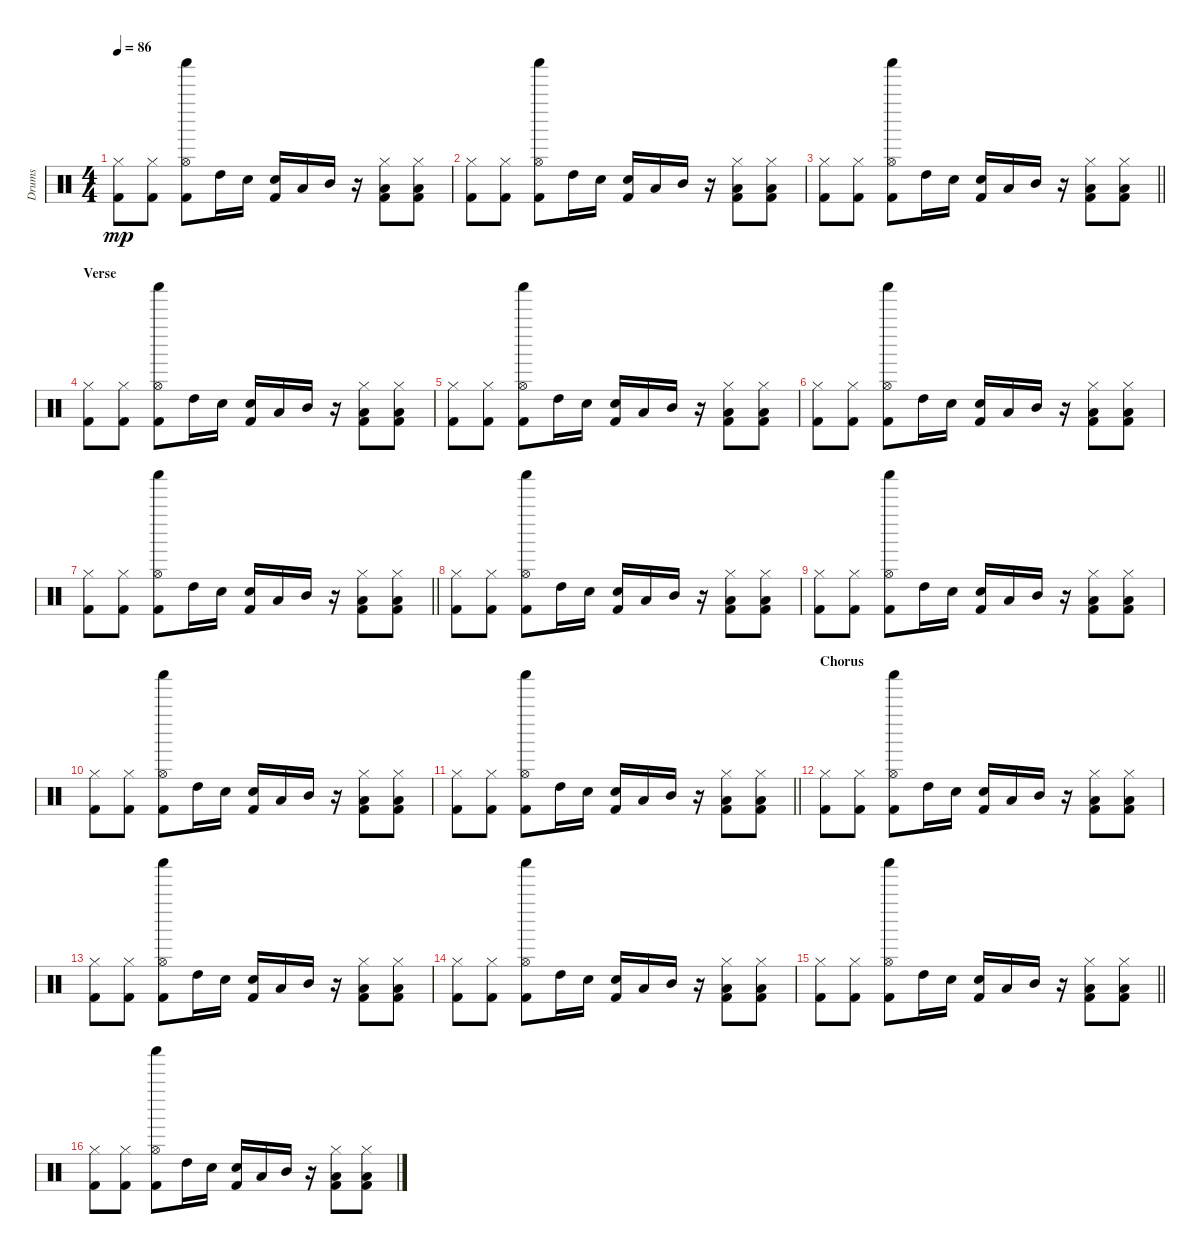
\track ("Drums" "Drums") {instrument percussion}
\staff
\articulation defaults
\ts (4 4)
\tempo 86
\clef neutral
\ks c
("Hi-Hat (closed)" "Kick (hit) 2").8{dy mp} ("Hi-Hat (closed)" "Kick (hit) 2").8 ("Hi-Hat (open)" "Shaker (hit)" "Kick (hit) 2").8 "High Tom (hit)".16 "Electric Snare (hit)".16 ("Electric Snare (hit)" "Kick (hit) 2").16 "Low Tom (hit)".16 "Mid Tom (hit)".16 r.16 ("Hi-Hat (closed)" "Low Tom (hit)" "Kick (hit) 2").8 ("Hi-Hat (closed)" "Low Tom (hit)" "Kick (hit) 2").8 |
("Hi-Hat (closed)" "Kick (hit) 2").8 ("Hi-Hat (closed)" "Kick (hit) 2").8 ("Hi-Hat (open)" "Shaker (hit)" "Kick (hit) 2").8 "High Tom (hit)".16 "Electric Snare (hit)".16 ("Electric Snare (hit)" "Kick (hit) 2").16 "Low Tom (hit)".16 "Mid Tom (hit)".16 r.16 ("Hi-Hat (closed)" "Low Tom (hit)" "Kick (hit) 2").8 ("Hi-Hat (closed)" "Low Tom (hit)" "Kick (hit) 2").8 |
\barLineRight lightlight
("Hi-Hat (closed)" "Kick (hit) 2").8 ("Hi-Hat (closed)" "Kick (hit) 2").8 ("Hi-Hat (open)" "Shaker (hit)" "Kick (hit) 2").8 "High Tom (hit)".16 "Electric Snare (hit)".16 ("Electric Snare (hit)" "Kick (hit) 2").16 "Low Tom (hit)".16 "Mid Tom (hit)".16 r.16 ("Hi-Hat (closed)" "Low Tom (hit)" "Kick (hit) 2").8 ("Hi-Hat (closed)" "Low Tom (hit)" "Kick (hit) 2").8 |
\section ("" "Verse")
("Hi-Hat (closed)" "Kick (hit) 2").8 ("Hi-Hat (closed)" "Kick (hit) 2").8 ("Hi-Hat (open)" "Shaker (hit)" "Kick (hit) 2").8 "High Tom (hit)".16 "Electric Snare (hit)".16 ("Electric Snare (hit)" "Kick (hit) 2").16 "Low Tom (hit)".16 "Mid Tom (hit)".16 r.16 ("Hi-Hat (closed)" "Low Tom (hit)" "Kick (hit) 2").8 ("Hi-Hat (closed)" "Low Tom (hit)" "Kick (hit) 2").8 |
("Hi-Hat (closed)" "Kick (hit) 2").8 ("Hi-Hat (closed)" "Kick (hit) 2").8 ("Hi-Hat (open)" "Shaker (hit)" "Kick (hit) 2").8 "High Tom (hit)".16 "Electric Snare (hit)".16 ("Electric Snare (hit)" "Kick (hit) 2").16 "Low Tom (hit)".16 "Mid Tom (hit)".16 r.16 ("Hi-Hat (closed)" "Low Tom (hit)" "Kick (hit) 2").8 ("Hi-Hat (closed)" "Low Tom (hit)" "Kick (hit) 2").8 |
("Hi-Hat (closed)" "Kick (hit) 2").8 ("Hi-Hat (closed)" "Kick (hit) 2").8 ("Hi-Hat (open)" "Shaker (hit)" "Kick (hit) 2").8 "High Tom (hit)".16 "Electric Snare (hit)".16 ("Electric Snare (hit)" "Kick (hit) 2").16 "Low Tom (hit)".16 "Mid Tom (hit)".16 r.16 ("Hi-Hat (closed)" "Low Tom (hit)" "Kick (hit) 2").8 ("Hi-Hat (closed)" "Low Tom (hit)" "Kick (hit) 2").8 |
\barLineRight lightlight
("Hi-Hat (closed)" "Kick (hit) 2").8 ("Hi-Hat (closed)" "Kick (hit) 2").8 ("Hi-Hat (open)" "Shaker (hit)" "Kick (hit) 2").8 "High Tom (hit)".16 "Electric Snare (hit)".16 ("Electric Snare (hit)" "Kick (hit) 2").16 "Low Tom (hit)".16 "Mid Tom (hit)".16 r.16 ("Hi-Hat (closed)" "Low Tom (hit)" "Kick (hit) 2").8 ("Hi-Hat (closed)" "Low Tom (hit)" "Kick (hit) 2").8 |
("Hi-Hat (closed)" "Kick (hit) 2").8 ("Hi-Hat (closed)" "Kick (hit) 2").8 ("Hi-Hat (open)" "Shaker (hit)" "Kick (hit) 2").8 "High Tom (hit)".16 "Electric Snare (hit)".16 ("Electric Snare (hit)" "Kick (hit) 2").16 "Low Tom (hit)".16 "Mid Tom (hit)".16 r.16 ("Hi-Hat (closed)" "Low Tom (hit)" "Kick (hit) 2").8 ("Hi-Hat (closed)" "Low Tom (hit)" "Kick (hit) 2").8 |
("Hi-Hat (closed)" "Kick (hit) 2").8 ("Hi-Hat (closed)" "Kick (hit) 2").8 ("Hi-Hat (open)" "Shaker (hit)" "Kick (hit) 2").8 "High Tom (hit)".16 "Electric Snare (hit)".16 ("Electric Snare (hit)" "Kick (hit) 2").16 "Low Tom (hit)".16 "Mid Tom (hit)".16 r.16 ("Hi-Hat (closed)" "Low Tom (hit)" "Kick (hit) 2").8 ("Hi-Hat (closed)" "Low Tom (hit)" "Kick (hit) 2").8 |
("Hi-Hat (closed)" "Kick (hit) 2").8 ("Hi-Hat (closed)" "Kick (hit) 2").8 ("Hi-Hat (open)" "Shaker (hit)" "Kick (hit) 2").8 "High Tom (hit)".16 "Electric Snare (hit)".16 ("Electric Snare (hit)" "Kick (hit) 2").16 "Low Tom (hit)".16 "Mid Tom (hit)".16 r.16 ("Hi-Hat (closed)" "Low Tom (hit)" "Kick (hit) 2").8 ("Hi-Hat (closed)" "Low Tom (hit)" "Kick (hit) 2").8 |
\barLineRight lightlight
("Hi-Hat (closed)" "Kick (hit) 2").8 ("Hi-Hat (closed)" "Kick (hit) 2").8 ("Hi-Hat (open)" "Shaker (hit)" "Kick (hit) 2").8 "High Tom (hit)".16 "Electric Snare (hit)".16 ("Electric Snare (hit)" "Kick (hit) 2").16 "Low Tom (hit)".16 "Mid Tom (hit)".16 r.16 ("Hi-Hat (closed)" "Low Tom (hit)" "Kick (hit) 2").8 ("Hi-Hat (closed)" "Low Tom (hit)" "Kick (hit) 2").8 |
\section ("" "Chorus")
("Hi-Hat (closed)" "Kick (hit) 2").8 ("Hi-Hat (closed)" "Kick (hit) 2").8 ("Hi-Hat (open)" "Shaker (hit)" "Kick (hit) 2").8 "High Tom (hit)".16 "Electric Snare (hit)".16 ("Electric Snare (hit)" "Kick (hit) 2").16 "Low Tom (hit)".16 "Mid Tom (hit)".16 r.16 ("Hi-Hat (closed)" "Low Tom (hit)" "Kick (hit) 2").8 ("Hi-Hat (closed)" "Low Tom (hit)" "Kick (hit) 2").8 |
("Hi-Hat (closed)" "Kick (hit) 2").8 ("Hi-Hat (closed)" "Kick (hit) 2").8 ("Hi-Hat (open)" "Shaker (hit)" "Kick (hit) 2").8 "High Tom (hit)".16 "Electric Snare (hit)".16 ("Electric Snare (hit)" "Kick (hit) 2").16 "Low Tom (hit)".16 "Mid Tom (hit)".16 r.16 ("Hi-Hat (closed)" "Low Tom (hit)" "Kick (hit) 2").8 ("Hi-Hat (closed)" "Low Tom (hit)" "Kick (hit) 2").8 |
("Hi-Hat (closed)" "Kick (hit) 2").8 ("Hi-Hat (closed)" "Kick (hit) 2").8 ("Hi-Hat (open)" "Shaker (hit)" "Kick (hit) 2").8 "High Tom (hit)".16 "Electric Snare (hit)".16 ("Electric Snare (hit)" "Kick (hit) 2").16 "Low Tom (hit)".16 "Mid Tom (hit)".16 r.16 ("Hi-Hat (closed)" "Low Tom (hit)" "Kick (hit) 2").8 ("Hi-Hat (closed)" "Low Tom (hit)" "Kick (hit) 2").8 |
\barLineRight lightlight
("Hi-Hat (closed)" "Kick (hit) 2").8 ("Hi-Hat (closed)" "Kick (hit) 2").8 ("Hi-Hat (open)" "Shaker (hit)" "Kick (hit) 2").8 "High Tom (hit)".16 "Electric Snare (hit)".16 ("Electric Snare (hit)" "Kick (hit) 2").16 "Low Tom (hit)".16 "Mid Tom (hit)".16 r.16 ("Hi-Hat (closed)" "Low Tom (hit)" "Kick (hit) 2").8 ("Hi-Hat (closed)" "Low Tom (hit)" "Kick (hit) 2").8 |
("Hi-Hat (closed)" "Kick (hit) 2").8 ("Hi-Hat (closed)" "Kick (hit) 2").8 ("Hi-Hat (open)" "Shaker (hit)" "Kick (hit) 2").8 "High Tom (hit)".16 "Electric Snare (hit)".16 ("Electric Snare (hit)" "Kick (hit) 2").16 "Low Tom (hit)".16 "Mid Tom (hit)".16 r.16 ("Hi-Hat (closed)" "Low Tom (hit)" "Kick (hit) 2").8 ("Hi-Hat (closed)" "Low Tom (hit)" "Kick (hit) 2").8
